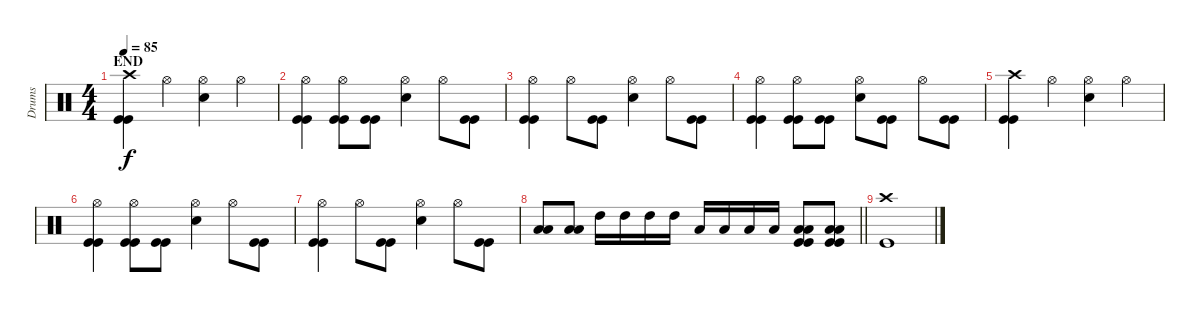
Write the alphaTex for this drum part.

\track ("Drums" "Drums") {instrument percussion}
\staff {score}
\articulation defaults
\ts (4 4)
\section ("" "END")
\tempo 85
\clef neutral
\ks c
("Crash high (hit)" "Kick (hit)" "Kick (hit)").4{dy f} "Hi-Hat (open)".4 ("Hi-Hat (open)" "Snare (hit) 2").4 "Hi-Hat (open)".4 |
("Hi-Hat (open)" "Kick (hit)" "Kick (hit)").4 ("Hi-Hat (open)" "Kick (hit)" "Kick (hit)").8 ("Kick (hit)" "Kick (hit)").8 ("Hi-Hat (open)" "Snare (hit) 2").4 "Hi-Hat (open)".8 ("Kick (hit)" "Kick (hit)").8 |
("Hi-Hat (open)" "Kick (hit)" "Kick (hit)").4 "Hi-Hat (open)".8 ("Kick (hit)" "Kick (hit)").8 ("Hi-Hat (open)" "Snare (hit) 2").4 "Hi-Hat (open)".8 ("Kick (hit)" "Kick (hit)").8 |
("Hi-Hat (open)" "Kick (hit)" "Kick (hit)").4 ("Hi-Hat (open)" "Kick (hit)" "Kick (hit)").8 ("Kick (hit)" "Kick (hit)").8 ("Hi-Hat (open)" "Snare (hit) 2").8 ("Kick (hit)" "Kick (hit)").8 "Hi-Hat (open)".8 ("Kick (hit)" "Kick (hit)").8 |
("Crash high (hit)" "Kick (hit)" "Kick (hit)").4 "Hi-Hat (open)".4 ("Hi-Hat (open)" "Snare (hit) 2").4 "Hi-Hat (open)".4 |
("Hi-Hat (open)" "Kick (hit)" "Kick (hit)").4 ("Hi-Hat (open)" "Kick (hit)" "Kick (hit)").8 ("Kick (hit)" "Kick (hit)").8 ("Hi-Hat (open)" "Snare (hit) 2").4 "Hi-Hat (open)".8 ("Kick (hit)" "Kick (hit)").8 |
("Hi-Hat (open)" "Kick (hit)" "Kick (hit)").4 "Hi-Hat (open)".8 ("Kick (hit)" "Kick (hit)").8 ("Hi-Hat (open)" "Snare (hit) 2").4 "Hi-Hat (open)".8 ("Kick (hit)" "Kick (hit)").8 |
\barLineRight lightlight
("Low Floor Tom (hit)" "Low Tom (hit)").8 ("Low Floor Tom (hit)" "Low Tom (hit)").8 "High Tom (hit)".16 "High Tom (hit)".16 "High Tom (hit)".16 "High Tom (hit)".16 "Low Tom (hit)".16 "Low Tom (hit)".16 "Low Tom (hit)".16 "Low Tom (hit)".16 ("Low Tom (hit)" "Low Floor Tom (hit)" "Kick (hit)" "Kick (hit)").8 ("Low Tom (hit)" "Low Floor Tom (hit)" "Kick (hit)" "Kick (hit)").8 |
("Crash high (hit)" "Kick (hit)").1
